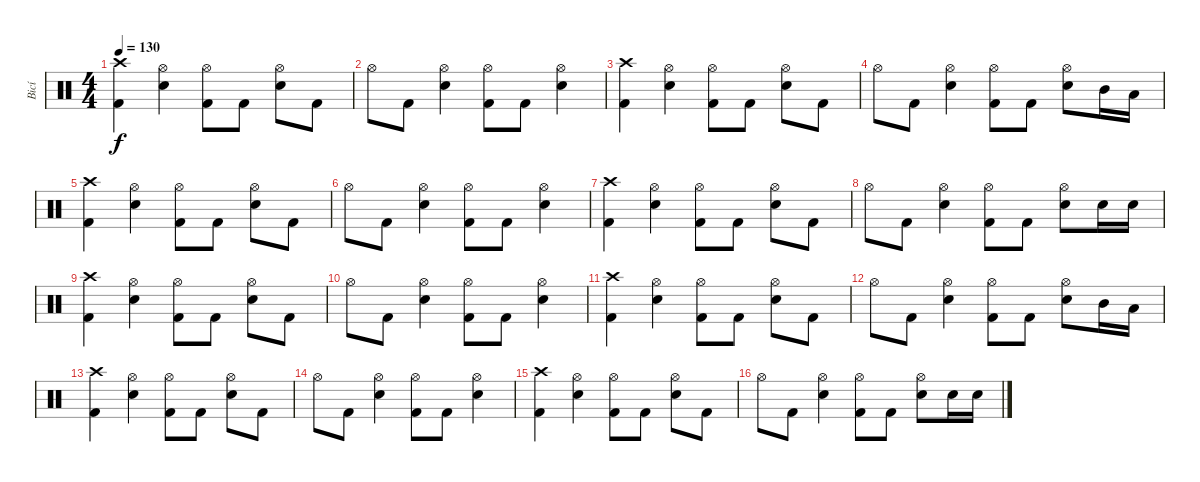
\track ("Bicí" "Bicí") {instrument percussion}
\staff {score}
\articulation defaults
\ts (4 4)
\tempo 130
\clef neutral
\ks c
("Crash high (hit)" "Kick (hit) 2").4{dy f} ("Hi-Hat (open)" "Snare (hit) 2").4 ("Hi-Hat (open)" "Kick (hit) 2").8 "Kick (hit) 2".8 ("Hi-Hat (open)" "Snare (hit) 2").8 "Kick (hit) 2".8 |
"Hi-Hat (open)".8 "Kick (hit) 2".8 ("Hi-Hat (open)" "Snare (hit) 2").4 ("Hi-Hat (open)" "Kick (hit) 2").8 "Kick (hit) 2".8 ("Hi-Hat (open)" "Snare (hit) 2").4 |
("Crash high (hit)" "Kick (hit) 2").4 ("Hi-Hat (open)" "Snare (hit) 2").4 ("Hi-Hat (open)" "Kick (hit) 2").8 "Kick (hit) 2".8 ("Hi-Hat (open)" "Snare (hit) 2").8 "Kick (hit) 2".8 |
"Hi-Hat (open)".8 "Kick (hit) 2".8 ("Hi-Hat (open)" "Snare (hit) 2").4 ("Hi-Hat (open)" "Kick (hit) 2").8 "Kick (hit) 2".8 ("Hi-Hat (open)" "Snare (hit) 2").8 "Mid Tom (hit)".16 "Low Tom (hit)".16 |
("Crash high (hit)" "Kick (hit) 2").4 ("Hi-Hat (open)" "Snare (hit) 2").4 ("Hi-Hat (open)" "Kick (hit) 2").8 "Kick (hit) 2".8 ("Hi-Hat (open)" "Snare (hit) 2").8 "Kick (hit) 2".8 |
"Hi-Hat (open)".8 "Kick (hit) 2".8 ("Hi-Hat (open)" "Snare (hit) 2").4 ("Hi-Hat (open)" "Kick (hit) 2").8 "Kick (hit) 2".8 ("Hi-Hat (open)" "Snare (hit) 2").4 |
("Crash high (hit)" "Kick (hit) 2").4 ("Hi-Hat (open)" "Snare (hit) 2").4 ("Hi-Hat (open)" "Kick (hit) 2").8 "Kick (hit) 2".8 ("Hi-Hat (open)" "Snare (hit) 2").8 "Kick (hit) 2".8 |
"Hi-Hat (open)".8 "Kick (hit) 2".8 ("Hi-Hat (open)" "Snare (hit) 2").4 ("Hi-Hat (open)" "Kick (hit) 2").8 "Kick (hit) 2".8 ("Hi-Hat (open)" "Snare (hit) 2").8 "Snare (hit) 2".16 "Snare (hit) 2".16 |
("Crash high (hit)" "Kick (hit) 2").4 ("Hi-Hat (open)" "Snare (hit) 2").4 ("Hi-Hat (open)" "Kick (hit) 2").8 "Kick (hit) 2".8 ("Hi-Hat (open)" "Snare (hit) 2").8 "Kick (hit) 2".8 |
"Hi-Hat (open)".8 "Kick (hit) 2".8 ("Hi-Hat (open)" "Snare (hit) 2").4 ("Hi-Hat (open)" "Kick (hit) 2").8 "Kick (hit) 2".8 ("Hi-Hat (open)" "Snare (hit) 2").4 |
("Crash high (hit)" "Kick (hit) 2").4 ("Hi-Hat (open)" "Snare (hit) 2").4 ("Hi-Hat (open)" "Kick (hit) 2").8 "Kick (hit) 2".8 ("Hi-Hat (open)" "Snare (hit) 2").8 "Kick (hit) 2".8 |
"Hi-Hat (open)".8 "Kick (hit) 2".8 ("Hi-Hat (open)" "Snare (hit) 2").4 ("Hi-Hat (open)" "Kick (hit) 2").8 "Kick (hit) 2".8 ("Hi-Hat (open)" "Snare (hit) 2").8 "Mid Tom (hit)".16 "Low Tom (hit)".16 |
("Crash high (hit)" "Kick (hit) 2").4 ("Hi-Hat (open)" "Snare (hit) 2").4 ("Hi-Hat (open)" "Kick (hit) 2").8 "Kick (hit) 2".8 ("Hi-Hat (open)" "Snare (hit) 2").8 "Kick (hit) 2".8 |
"Hi-Hat (open)".8 "Kick (hit) 2".8 ("Hi-Hat (open)" "Snare (hit) 2").4 ("Hi-Hat (open)" "Kick (hit) 2").8 "Kick (hit) 2".8 ("Hi-Hat (open)" "Snare (hit) 2").4 |
("Crash high (hit)" "Kick (hit) 2").4 ("Hi-Hat (open)" "Snare (hit) 2").4 ("Hi-Hat (open)" "Kick (hit) 2").8 "Kick (hit) 2".8 ("Hi-Hat (open)" "Snare (hit) 2").8 "Kick (hit) 2".8 |
"Hi-Hat (open)".8 "Kick (hit) 2".8 ("Hi-Hat (open)" "Snare (hit) 2").4 ("Hi-Hat (open)" "Kick (hit) 2").8 "Kick (hit) 2".8 ("Hi-Hat (open)" "Snare (hit) 2").8 "Snare (hit) 2".16 "Snare (hit) 2".16
